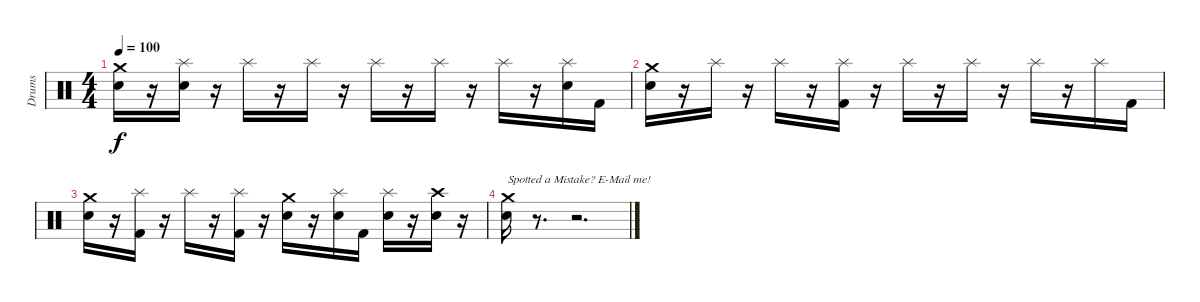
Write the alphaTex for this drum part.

\track ("Drums" "Drums") {instrument percussion}
\staff {score}
\articulation defaults
\ts (4 4)
\tempo 100
\clef neutral
\ks c
("Crash medium (hit)" "Snare (hit) 2").16{dy f} r.16 ("Splash (hit)" "Snare (hit) 2").16 r.16 "Splash (hit)".16 r.16 "Splash (hit)".16 r.16 "Splash (hit)".16 r.16 "Splash (hit)".16 r.16 "Splash (hit)".16 r.16 ("Splash (hit)" "Snare (hit) 2").16 "Kick (hit) 2".16 |
("Crash medium (hit)" "Snare (hit) 2").16 r.16 "Splash (hit)".16 r.16 "Splash (hit)".16 r.16 ("Splash (hit)" "Kick (hit) 2").16 r.16 "Splash (hit)".16 r.16 "Splash (hit)".16 r.16 "Splash (hit)".16 r.16 "Splash (hit)".16 "Kick (hit) 2".16 |
("Crash medium (hit)" "Snare (hit) 2").16 r.16 ("Splash (hit)" "Kick (hit) 2").16 r.16 "Splash (hit)".16 r.16 ("Splash (hit)" "Kick (hit) 2").16 r.16 ("Crash medium (hit)" "Snare (hit) 2").16 r.16 ("Splash (hit)" "Snare (hit) 2").16 "Kick (hit) 2".16 ("Splash (hit)" "Snare (hit) 2").16 r.16 ("Crash high (hit)" "Snare (hit) 2").16 r.16 |
("Crash medium (hit)" "Snare (hit) 2").16{txt "Spotted a Mistake? E-Mail me!"} r.8{d} r.2{d}
